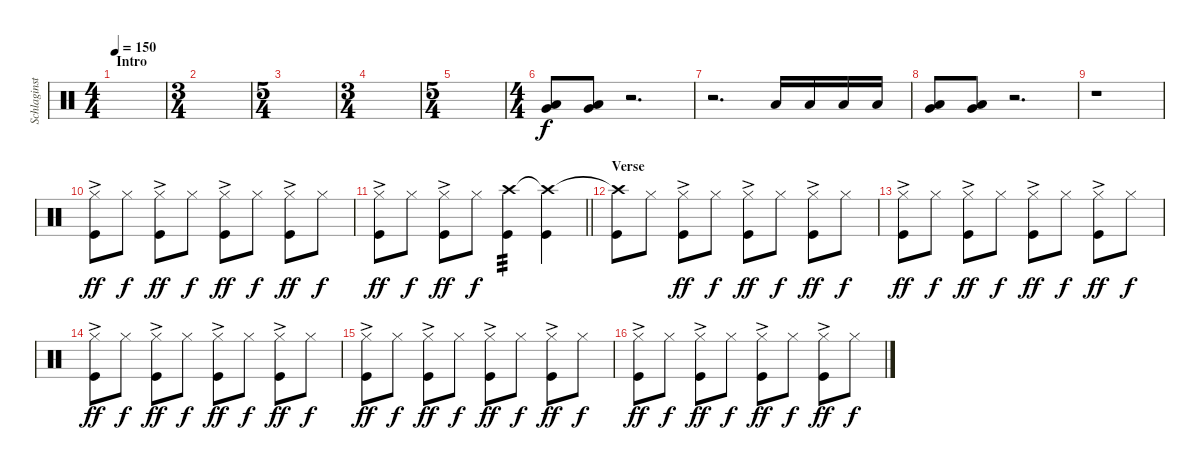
\track ("Schlaginstrumente - Auswahl" "Schlaginst") {instrument percussion}
\staff {score}
\articulation defaults
\ts (4 4)
\section ("" "Intro")
\tempo 150
\clef neutral
\ks c
|
\ts (3 4)
|
\ts (5 4)
|
\ts (3 4)
|
\ts (5 4)
|
\ts (4 4)
("Low Floor Tom (hit)" "Very Low Tom (hit)").8 ("Low Floor Tom (hit)" "Very Low Tom (hit)").8 r.2{d} |
r.2{d} "Low Tom (hit)".16 "Low Tom (hit)".16 "Low Tom (hit)".16 "Low Tom (hit)".16 |
("Low Floor Tom (hit)" "Very Low Tom (hit)").8 ("Low Floor Tom (hit)" "Very Low Tom (hit)").8 r.2{d} |
r.1 |
("Hi-Hat (closed)"{ac} "Kick (hit)").8{dy ff} "Hi-Hat (closed)".8{dy f} ("Hi-Hat (closed)"{ac} "Kick (hit)").8{dy ff} "Hi-Hat (closed)".8{dy f} ("Hi-Hat (closed)"{ac} "Kick (hit)").8{dy ff} "Hi-Hat (closed)".8{dy f} ("Hi-Hat (closed)"{ac} "Kick (hit)").8{dy ff} "Hi-Hat (closed)".8{dy f} |
\barLineRight lightlight
("Hi-Hat (closed)"{ac} "Kick (hit)").8{dy ff} "Hi-Hat (closed)".8{dy f} ("Hi-Hat (closed)"{ac} "Kick (hit)").8{dy ff} "Hi-Hat (closed)".8{dy f} ("Crash high (hit)" "Kick (hit)").4{tp 3 volume 14} ("Crash high (hit)"{t} "Kick (hit)").4 |
\section ("" "Verse")
("Crash high (hit)"{t} "Kick (hit)").8 "Hi-Hat (closed)".8 ("Hi-Hat (closed)"{ac} "Kick (hit)").8{dy ff} "Hi-Hat (closed)".8{dy f} ("Hi-Hat (closed)"{ac} "Kick (hit)").8{dy ff} "Hi-Hat (closed)".8{dy f} ("Hi-Hat (closed)"{ac} "Kick (hit)").8{dy ff} "Hi-Hat (closed)".8{dy f} |
("Hi-Hat (closed)"{ac} "Kick (hit)").8{dy ff} "Hi-Hat (closed)".8{dy f} ("Hi-Hat (closed)"{ac} "Kick (hit)").8{dy ff} "Hi-Hat (closed)".8{dy f} ("Hi-Hat (closed)"{ac} "Kick (hit)").8{dy ff} "Hi-Hat (closed)".8{dy f} ("Hi-Hat (closed)"{ac} "Kick (hit)").8{dy ff} "Hi-Hat (closed)".8{dy f} |
("Hi-Hat (closed)"{ac} "Kick (hit)").8{dy ff} "Hi-Hat (closed)".8{dy f} ("Hi-Hat (closed)"{ac} "Kick (hit)").8{dy ff} "Hi-Hat (closed)".8{dy f} ("Hi-Hat (closed)"{ac} "Kick (hit)").8{dy ff} "Hi-Hat (closed)".8{dy f} ("Hi-Hat (closed)"{ac} "Kick (hit)").8{dy ff} "Hi-Hat (closed)".8{dy f} |
("Hi-Hat (closed)"{ac} "Kick (hit)").8{dy ff} "Hi-Hat (closed)".8{dy f} ("Hi-Hat (closed)"{ac} "Kick (hit)").8{dy ff} "Hi-Hat (closed)".8{dy f} ("Hi-Hat (closed)"{ac} "Kick (hit)").8{dy ff} "Hi-Hat (closed)".8{dy f} ("Hi-Hat (closed)"{ac} "Kick (hit)").8{dy ff} "Hi-Hat (closed)".8{dy f} |
("Hi-Hat (closed)"{ac} "Kick (hit)").8{dy ff} "Hi-Hat (closed)".8{dy f} ("Hi-Hat (closed)"{ac} "Kick (hit)").8{dy ff} "Hi-Hat (closed)".8{dy f} ("Hi-Hat (closed)"{ac} "Kick (hit)").8{dy ff} "Hi-Hat (closed)".8{dy f} ("Hi-Hat (closed)"{ac} "Kick (hit)").8{dy ff} "Hi-Hat (closed)".8{dy f}
